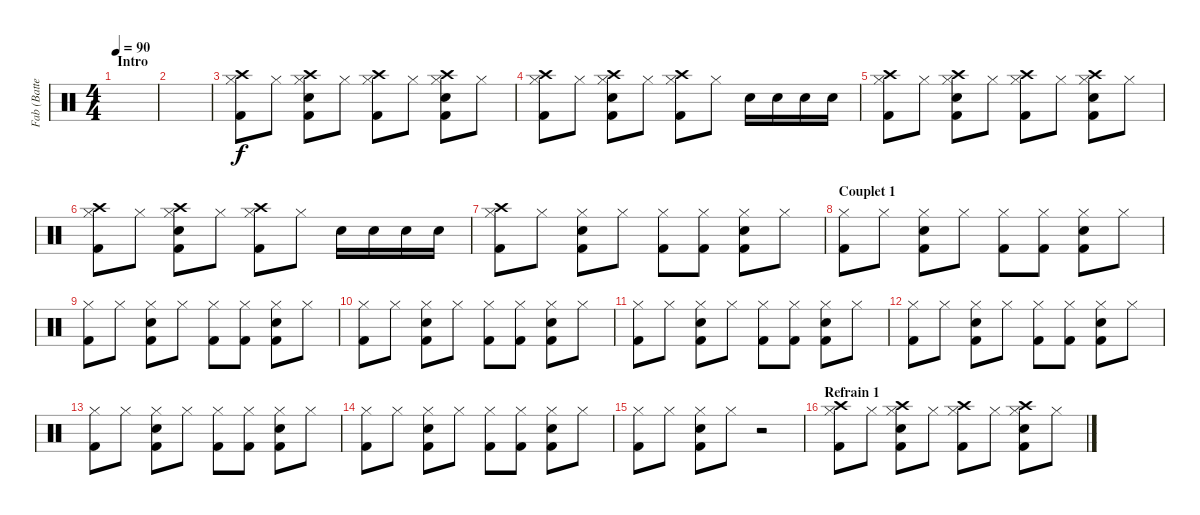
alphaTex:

\track ("Fab (Batterie)" "Fab (Batte") {instrument percussion}
\staff {score}
\articulation defaults
\ts (4 4)
\section ("" "Intro")
\tempo 90
\clef neutral
\ks c
|
|
("Crash high (hit)" "Hi-Hat (closed)" "Kick (hit) 2").8 "Hi-Hat (closed)".8 ("Crash high (hit)" "Hi-Hat (closed)" "Snare (hit) 2" "Kick (hit) 2").8 "Hi-Hat (closed)".8 ("Crash high (hit)" "Hi-Hat (closed)" "Kick (hit) 2").8 "Hi-Hat (closed)".8 ("Crash high (hit)" "Hi-Hat (closed)" "Snare (hit) 2" "Kick (hit) 2").8 "Hi-Hat (closed)".8 |
("Crash high (hit)" "Hi-Hat (closed)" "Kick (hit) 2").8 "Hi-Hat (closed)".8 ("Crash high (hit)" "Hi-Hat (closed)" "Snare (hit) 2" "Kick (hit) 2").8 "Hi-Hat (closed)".8 ("Crash high (hit)" "Hi-Hat (closed)" "Kick (hit) 2").8 "Hi-Hat (closed)".8 "Snare (hit) 2".16 "Snare (hit) 2".16 "Snare (hit) 2".16 "Snare (hit) 2".16 |
("Crash high (hit)" "Hi-Hat (closed)" "Kick (hit) 2").8 "Hi-Hat (closed)".8 ("Crash high (hit)" "Hi-Hat (closed)" "Snare (hit) 2" "Kick (hit) 2").8 "Hi-Hat (closed)".8 ("Crash high (hit)" "Hi-Hat (closed)" "Kick (hit) 2").8 "Hi-Hat (closed)".8 ("Crash high (hit)" "Hi-Hat (closed)" "Snare (hit) 2" "Kick (hit) 2").8 "Hi-Hat (closed)".8 |
("Crash high (hit)" "Hi-Hat (closed)" "Kick (hit) 2").8 "Hi-Hat (closed)".8 ("Crash high (hit)" "Hi-Hat (closed)" "Snare (hit) 2" "Kick (hit) 2").8 "Hi-Hat (closed)".8 ("Crash high (hit)" "Hi-Hat (closed)" "Kick (hit) 2").8 "Hi-Hat (closed)".8 "Snare (hit) 2".16 "Snare (hit) 2".16 "Snare (hit) 2".16 "Snare (hit) 2".16 |
("Crash high (hit)" "Hi-Hat (closed)" "Kick (hit) 2").8 "Hi-Hat (closed)".8 ("Hi-Hat (closed)" "Snare (hit) 2" "Kick (hit) 2").8 "Hi-Hat (closed)".8 ("Hi-Hat (closed)" "Kick (hit) 2").8 ("Hi-Hat (closed)" "Kick (hit) 2").8 ("Hi-Hat (closed)" "Snare (hit) 2" "Kick (hit) 2").8 "Hi-Hat (closed)".8 |
\section ("" "Couplet 1")
("Hi-Hat (closed)" "Kick (hit) 2").8 "Hi-Hat (closed)".8 ("Hi-Hat (closed)" "Snare (hit) 2" "Kick (hit) 2").8 "Hi-Hat (closed)".8 ("Hi-Hat (closed)" "Kick (hit) 2").8 ("Hi-Hat (closed)" "Kick (hit) 2").8 ("Hi-Hat (closed)" "Snare (hit) 2" "Kick (hit) 2").8 "Hi-Hat (closed)".8 |
("Hi-Hat (closed)" "Kick (hit) 2").8 "Hi-Hat (closed)".8 ("Hi-Hat (closed)" "Snare (hit) 2" "Kick (hit) 2").8 "Hi-Hat (closed)".8 ("Hi-Hat (closed)" "Kick (hit) 2").8 ("Hi-Hat (closed)" "Kick (hit) 2").8 ("Hi-Hat (closed)" "Snare (hit) 2" "Kick (hit) 2").8 "Hi-Hat (closed)".8 |
("Hi-Hat (closed)" "Kick (hit) 2").8 "Hi-Hat (closed)".8 ("Hi-Hat (closed)" "Snare (hit) 2" "Kick (hit) 2").8 "Hi-Hat (closed)".8 ("Hi-Hat (closed)" "Kick (hit) 2").8 ("Hi-Hat (closed)" "Kick (hit) 2").8 ("Hi-Hat (closed)" "Snare (hit) 2" "Kick (hit) 2").8 "Hi-Hat (closed)".8 |
("Hi-Hat (closed)" "Kick (hit) 2").8 "Hi-Hat (closed)".8 ("Hi-Hat (closed)" "Snare (hit) 2" "Kick (hit) 2").8 "Hi-Hat (closed)".8 ("Hi-Hat (closed)" "Kick (hit) 2").8 ("Hi-Hat (closed)" "Kick (hit) 2").8 ("Hi-Hat (closed)" "Snare (hit) 2" "Kick (hit) 2").8 "Hi-Hat (closed)".8 |
("Hi-Hat (closed)" "Kick (hit) 2").8 "Hi-Hat (closed)".8 ("Hi-Hat (closed)" "Snare (hit) 2" "Kick (hit) 2").8 "Hi-Hat (closed)".8 ("Hi-Hat (closed)" "Kick (hit) 2").8 ("Hi-Hat (closed)" "Kick (hit) 2").8 ("Hi-Hat (closed)" "Snare (hit) 2" "Kick (hit) 2").8 "Hi-Hat (closed)".8 |
("Hi-Hat (closed)" "Kick (hit) 2").8 "Hi-Hat (closed)".8 ("Hi-Hat (closed)" "Snare (hit) 2" "Kick (hit) 2").8 "Hi-Hat (closed)".8 ("Hi-Hat (closed)" "Kick (hit) 2").8 ("Hi-Hat (closed)" "Kick (hit) 2").8 ("Hi-Hat (closed)" "Snare (hit) 2" "Kick (hit) 2").8 "Hi-Hat (closed)".8 |
("Hi-Hat (closed)" "Kick (hit) 2").8 "Hi-Hat (closed)".8 ("Hi-Hat (closed)" "Snare (hit) 2" "Kick (hit) 2").8 "Hi-Hat (closed)".8 ("Hi-Hat (closed)" "Kick (hit) 2").8 ("Hi-Hat (closed)" "Kick (hit) 2").8 ("Hi-Hat (closed)" "Snare (hit) 2" "Kick (hit) 2").8 "Hi-Hat (closed)".8 |
("Hi-Hat (closed)" "Kick (hit) 2").8 "Hi-Hat (closed)".8 ("Hi-Hat (closed)" "Snare (hit) 2" "Kick (hit) 2").8 "Hi-Hat (closed)".8 r.2 |
\section ("" "Refrain 1")
("Crash high (hit)" "Hi-Hat (closed)" "Kick (hit) 2").8 "Hi-Hat (closed)".8 ("Crash high (hit)" "Hi-Hat (closed)" "Snare (hit) 2" "Kick (hit) 2").8 "Hi-Hat (closed)".8 ("Crash high (hit)" "Hi-Hat (closed)" "Kick (hit) 2").8 "Hi-Hat (closed)".8 ("Crash high (hit)" "Hi-Hat (closed)" "Snare (hit) 2" "Kick (hit) 2").8 "Hi-Hat (closed)".8
